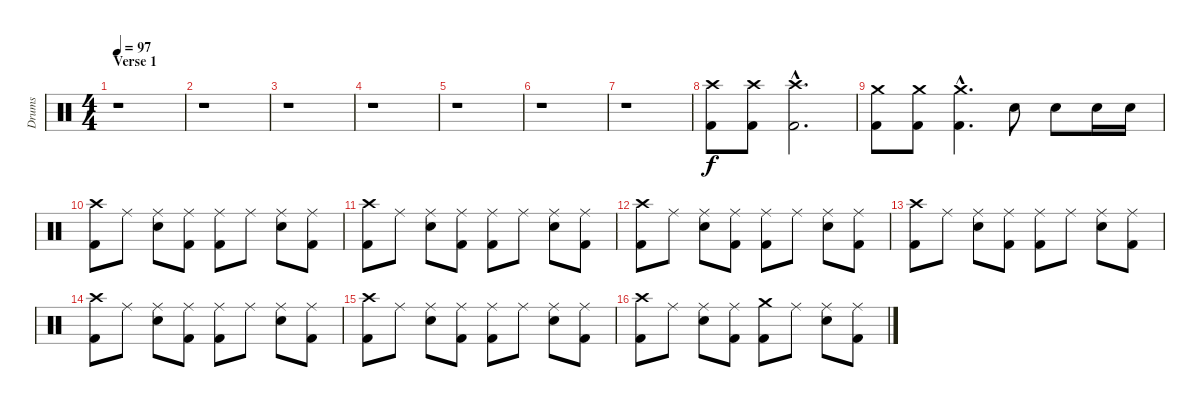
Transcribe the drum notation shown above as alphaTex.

\track ("Drums" "Drums") {instrument percussion}
\staff {score}
\articulation defaults
\ts (4 4)
\section ("" "Verse 1")
\tempo 97
\clef neutral
\ks c
r.1{dy f} |
r.1 |
r.1 |
r.1 |
r.1 |
r.1 |
r.1 |
("Crash high (hit)" "Kick (hit) 2").8 ("Crash high (hit)" "Kick (hit) 2").8 ("Crash high (hit)"{hac} "Kick (hit) 2"{hac}).2{d} |
("Crash medium (hit)" "Kick (hit) 2").8 ("Crash medium (hit)" "Kick (hit) 2").8 ("Crash medium (hit)"{hac} "Kick (hit) 2"{hac}).4{d} "Snare (hit) 2".8 "Snare (hit) 2".8 "Snare (hit) 2".16 "Snare (hit) 2".16 |
("Crash high (hit)" "Kick (hit) 2").8 "Ride (middle)".8 ("Ride (middle)" "Snare (hit) 2").8 ("Ride (middle)" "Kick (hit) 2").8 ("Ride (middle)" "Kick (hit) 2").8 "Ride (middle)".8 ("Ride (middle)" "Snare (hit) 2").8 ("Ride (middle)" "Kick (hit) 2").8 |
("Crash high (hit)" "Kick (hit) 2").8 "Ride (middle)".8 ("Ride (middle)" "Snare (hit) 2").8 ("Ride (middle)" "Kick (hit) 2").8 ("Ride (middle)" "Kick (hit) 2").8 "Ride (middle)".8 ("Ride (middle)" "Snare (hit) 2").8 ("Ride (middle)" "Kick (hit) 2").8 |
("Crash high (hit)" "Kick (hit) 2").8 "Ride (middle)".8 ("Ride (middle)" "Snare (hit) 2").8 ("Ride (middle)" "Kick (hit) 2").8 ("Ride (middle)" "Kick (hit) 2").8 "Ride (middle)".8 ("Ride (middle)" "Snare (hit) 2").8 ("Ride (middle)" "Kick (hit) 2").8 |
("Crash high (hit)" "Kick (hit) 2").8 "Ride (middle)".8 ("Ride (middle)" "Snare (hit) 2").8 ("Ride (middle)" "Kick (hit) 2").8 ("Ride (middle)" "Kick (hit) 2").8 "Ride (middle)".8 ("Ride (middle)" "Snare (hit) 2").8 ("Ride (middle)" "Kick (hit) 2").8 |
("Crash high (hit)" "Kick (hit) 2").8 "Ride (middle)".8 ("Ride (middle)" "Snare (hit) 2").8 ("Ride (middle)" "Kick (hit) 2").8 ("Ride (middle)" "Kick (hit) 2").8 "Ride (middle)".8 ("Ride (middle)" "Snare (hit) 2").8 ("Ride (middle)" "Kick (hit) 2").8 |
("Crash high (hit)" "Kick (hit) 2").8 "Ride (middle)".8 ("Ride (middle)" "Snare (hit) 2").8 ("Ride (middle)" "Kick (hit) 2").8 ("Ride (middle)" "Kick (hit) 2").8 "Ride (middle)".8 ("Ride (middle)" "Snare (hit) 2").8 ("Ride (middle)" "Kick (hit) 2").8 |
("Crash high (hit)" "Kick (hit) 2").8 "Ride (middle)".8 ("Ride (middle)" "Snare (hit) 2").8 ("Ride (middle)" "Kick (hit) 2").8 ("Crash medium (hit)" "Kick (hit) 2").8 "Ride (middle)".8 ("Ride (middle)" "Snare (hit) 2").8 ("Ride (middle)" "Kick (hit) 2").8
